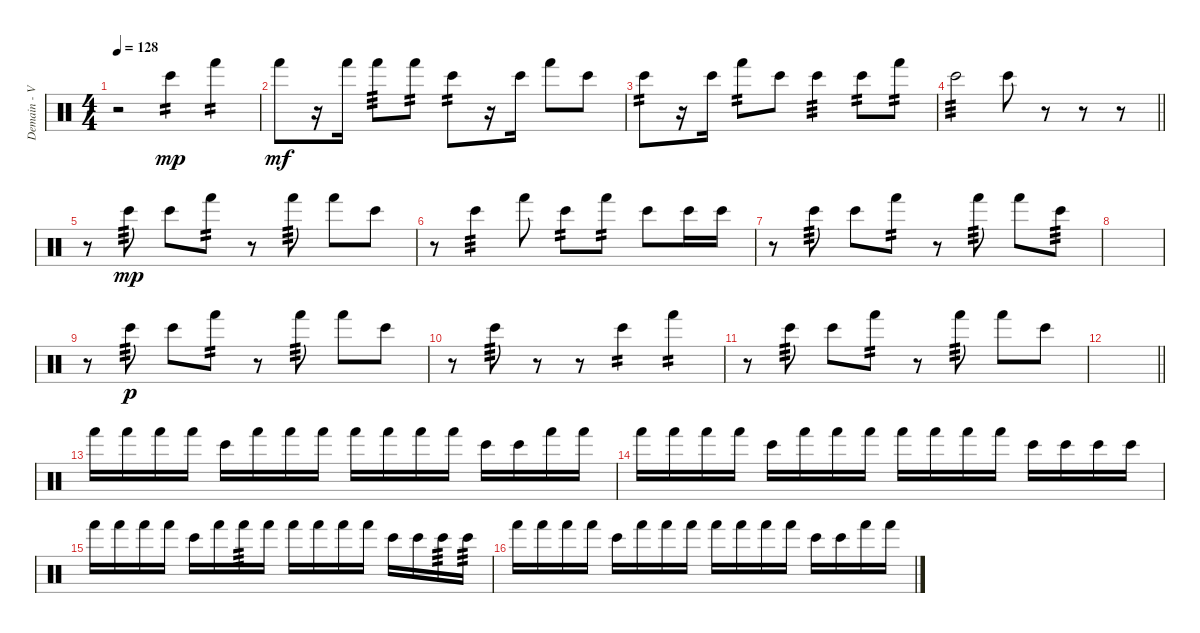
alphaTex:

\track ("Demain - Various Perc." "Demain - V") {instrument percussion}
\staff {score}
\articulation defaults
\ts (4 4)
\tempo 128
\clef neutral
\ks c
r.2{dy mp} "Bongo High (hit)".4{tp 2} "Hand (hit)".4{tp 2} |
"Hand (hit)".8{dy mf} r.16 "Hand (hit)".16 "Hand (hit)".8{tp 3} "Hand (hit)".8{tp 2} "Bongo High (hit)".8{tp 2} r.16 "Bongo High (hit)".16 "Hand (hit)".8 "Bongo High (hit)".8 |
"Bongo High (hit)".8{tp 2} r.16 "Bongo High (hit)".16 "Hand (hit)".8{tp 2} "Bongo High (hit)".8 "Bongo High (hit)".4{tp 3} "Bongo High (hit)".8{tp 2} "Hand (hit)".8{tp 2} |
\barLineRight lightlight "Bongo High (hit)".2{tp 3} "Bongo High (hit)".8
r.8 r.8 r.8 |
r.8 "Bongo High (hit)".8{tp 3 dy mp} "Bongo High (hit)".8 "Hand (hit)".8{tp 2} r.8 "Hand (hit)".8{tp 3} "Hand (hit)".8 "Bongo High (hit)".8 |
r.8 "Bongo High (hit)".4{tp 3} "Hand (hit)".8 "Bongo High (hit)".8{tp 2} "Hand (hit)".8{tp 2} "Bongo High (hit)".8 "Bongo High (hit)".16 "Bongo High (hit)".16 |
r.8 "Bongo High (hit)".8{tp 3} "Bongo High (hit)".8 "Hand (hit)".8{tp 2} r.8 "Hand (hit)".8{tp 3} "Hand (hit)".8 "Bongo High (hit)".8{tp 3} |
|
r.8 "Bongo High (hit)".8{tp 3 dy p} "Bongo High (hit)".8 "Hand (hit)".8{tp 2} r.8 "Hand (hit)".8{tp 3} "Hand (hit)".8 "Bongo High (hit)".8 |
r.8 "Bongo High (hit)".8{tp 3} r.8 r.8 "Bongo High (hit)".4{tp 2} "Hand (hit)".4{tp 2} |
r.8 "Bongo High (hit)".8{tp 3} "Bongo High (hit)".8 "Hand (hit)".8{tp 2} r.8 "Hand (hit)".8{tp 3} "Hand (hit)".8 "Bongo High (hit)".8 |
\barLineRight lightlight
|
"Hand (hit)".16 "Hand (hit)".16 "Hand (hit)".16 "Hand (hit)".16 "Bongo High (hit)".16 "Hand (hit)".16 "Hand (hit)".16 "Hand (hit)".16 "Hand (hit)".16 "Hand (hit)".16 "Hand (hit)".16 "Hand (hit)".16 "Bongo High (hit)".16 "Bongo High (hit)".16 "Hand (hit)".16 "Hand (hit)".16 |
"Hand (hit)".16 "Hand (hit)".16 "Hand (hit)".16 "Hand (hit)".16 "Bongo High (hit)".16 "Hand (hit)".16 "Hand (hit)".16 "Hand (hit)".16 "Hand (hit)".16 "Hand (hit)".16 "Hand (hit)".16 "Hand (hit)".16 "Bongo High (hit)".16 "Bongo High (hit)".16 "Bongo High (hit)".16 "Bongo High (hit)".16 |
"Hand (hit)".16 "Hand (hit)".16 "Hand (hit)".16 "Hand (hit)".16 "Bongo High (hit)".16 "Hand (hit)".16 "Hand (hit)".16{tp 3} "Hand (hit)".16 "Hand (hit)".16 "Hand (hit)".16 "Hand (hit)".16 "Hand (hit)".16 "Bongo High (hit)".16 "Bongo High (hit)".16 "Bongo High (hit)".16{tp 3} "Bongo High (hit)".16{tp 3} |
"Hand (hit)".16 "Hand (hit)".16 "Hand (hit)".16 "Hand (hit)".16 "Bongo High (hit)".16 "Hand (hit)".16 "Hand (hit)".16 "Hand (hit)".16 "Hand (hit)".16 "Hand (hit)".16 "Hand (hit)".16 "Hand (hit)".16 "Bongo High (hit)".16 "Bongo High (hit)".16 "Hand (hit)".16 "Hand (hit)".16
